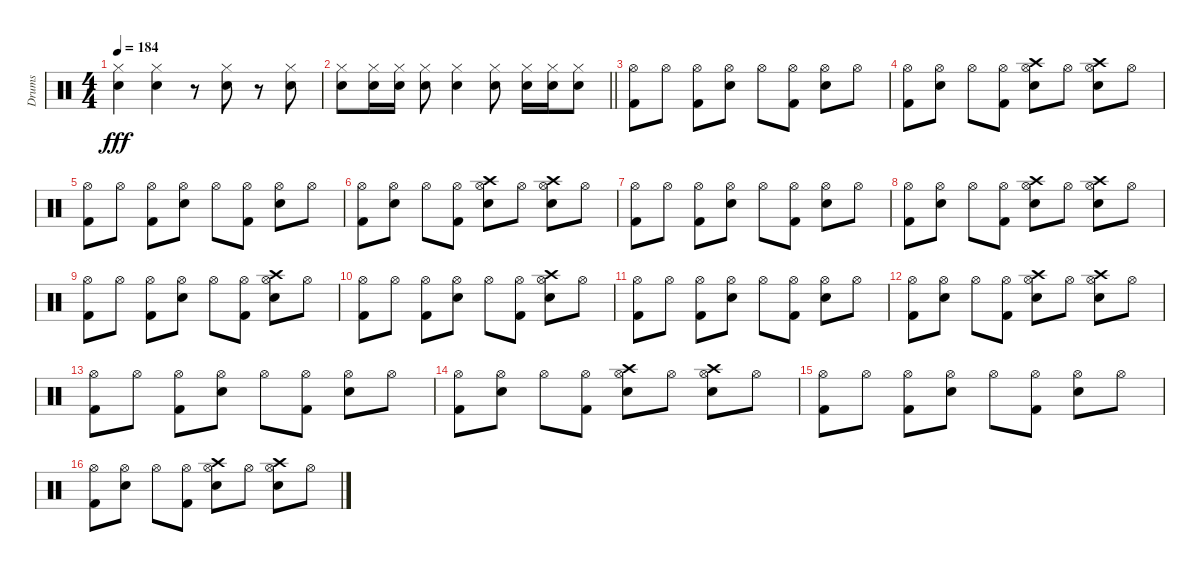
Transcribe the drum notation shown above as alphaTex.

\track ("Drums" "Drums") {instrument percussion}
\staff {score}
\articulation defaults
\ts (4 4)
\tempo 184
\clef neutral
\ks c
("Hi-Hat (closed)" "Snare (hit) 2").4{dy fff} ("Hi-Hat (closed)" "Snare (hit) 2").4 r.8 ("Hi-Hat (closed)" "Snare (hit) 2").8 r.8 ("Hi-Hat (closed)" "Snare (hit) 2").8 |
\barLineRight lightlight
("Hi-Hat (closed)" "Snare (hit) 2").8 ("Hi-Hat (closed)" "Snare (hit) 2").16 ("Hi-Hat (closed)" "Snare (hit) 2").16 ("Hi-Hat (closed)" "Snare (hit) 2").8 ("Hi-Hat (closed)" "Snare (hit) 2").4 ("Hi-Hat (closed)" "Snare (hit) 2").8 ("Hi-Hat (closed)" "Snare (hit) 2").16 ("Hi-Hat (closed)" "Snare (hit) 2").16 ("Hi-Hat (closed)" "Snare (hit) 2").8 |
("Hi-Hat (open)" "Kick (hit) 2").8 "Hi-Hat (open)".8 ("Hi-Hat (open)" "Kick (hit) 2").8 ("Hi-Hat (open)" "Snare (hit) 2").8 "Hi-Hat (open)".8 ("Hi-Hat (open)" "Kick (hit) 2").8 ("Hi-Hat (open)" "Snare (hit) 2").8 "Hi-Hat (open)".8 |
("Hi-Hat (open)" "Kick (hit) 2").8 ("Hi-Hat (open)" "Snare (hit) 2").8 "Hi-Hat (open)".8 ("Hi-Hat (open)" "Kick (hit) 2").8 ("Hi-Hat (open)" "Snare (hit) 2" "Crash high (hit)").8 "Hi-Hat (open)".8 ("Hi-Hat (open)" "Snare (hit) 2" "Crash high (hit)").8 "Hi-Hat (open)".8 |
("Hi-Hat (open)" "Kick (hit) 2").8 "Hi-Hat (open)".8 ("Hi-Hat (open)" "Kick (hit) 2").8 ("Hi-Hat (open)" "Snare (hit) 2").8 "Hi-Hat (open)".8 ("Hi-Hat (open)" "Kick (hit) 2").8 ("Hi-Hat (open)" "Snare (hit) 2").8 "Hi-Hat (open)".8 |
("Hi-Hat (open)" "Kick (hit) 2").8 ("Hi-Hat (open)" "Snare (hit) 2").8 "Hi-Hat (open)".8 ("Hi-Hat (open)" "Kick (hit) 2").8 ("Hi-Hat (open)" "Snare (hit) 2" "Crash high (hit)").8 "Hi-Hat (open)".8 ("Hi-Hat (open)" "Snare (hit) 2" "Crash high (hit)").8 "Hi-Hat (open)".8 |
("Hi-Hat (open)" "Kick (hit) 2").8 "Hi-Hat (open)".8 ("Hi-Hat (open)" "Kick (hit) 2").8 ("Hi-Hat (open)" "Snare (hit) 2").8 "Hi-Hat (open)".8 ("Hi-Hat (open)" "Kick (hit) 2").8 ("Hi-Hat (open)" "Snare (hit) 2").8 "Hi-Hat (open)".8 |
("Hi-Hat (open)" "Kick (hit) 2").8 ("Hi-Hat (open)" "Snare (hit) 2").8 "Hi-Hat (open)".8 ("Hi-Hat (open)" "Kick (hit) 2").8 ("Hi-Hat (open)" "Snare (hit) 2" "Crash high (hit)").8 "Hi-Hat (open)".8 ("Hi-Hat (open)" "Snare (hit) 2" "Crash high (hit)").8 "Hi-Hat (open)".8 |
("Hi-Hat (open)" "Kick (hit) 2").8 "Hi-Hat (open)".8 ("Hi-Hat (open)" "Kick (hit) 2").8 ("Hi-Hat (open)" "Snare (hit) 2").8 "Hi-Hat (open)".8 ("Hi-Hat (open)" "Kick (hit) 2").8 ("Hi-Hat (open)" "Snare (hit) 2" "Crash high (hit)").8 "Hi-Hat (open)".8 |
("Hi-Hat (open)" "Kick (hit) 2").8 "Hi-Hat (open)".8 ("Hi-Hat (open)" "Kick (hit) 2").8 ("Hi-Hat (open)" "Snare (hit) 2").8 "Hi-Hat (open)".8 ("Hi-Hat (open)" "Kick (hit) 2").8 ("Hi-Hat (open)" "Snare (hit) 2" "Crash high (hit)").8 "Hi-Hat (open)".8 |
("Hi-Hat (open)" "Kick (hit) 2").8 "Hi-Hat (open)".8 ("Hi-Hat (open)" "Kick (hit) 2").8 ("Hi-Hat (open)" "Snare (hit) 2").8 "Hi-Hat (open)".8 ("Hi-Hat (open)" "Kick (hit) 2").8 ("Hi-Hat (open)" "Snare (hit) 2").8 "Hi-Hat (open)".8 |
("Hi-Hat (open)" "Kick (hit) 2").8 ("Hi-Hat (open)" "Snare (hit) 2").8 "Hi-Hat (open)".8 ("Hi-Hat (open)" "Kick (hit) 2").8 ("Hi-Hat (open)" "Snare (hit) 2" "Crash high (hit)").8 "Hi-Hat (open)".8 ("Hi-Hat (open)" "Snare (hit) 2" "Crash high (hit)").8 "Hi-Hat (open)".8 |
("Hi-Hat (open)" "Kick (hit) 2").8 "Hi-Hat (open)".8 ("Hi-Hat (open)" "Kick (hit) 2").8 ("Hi-Hat (open)" "Snare (hit) 2").8 "Hi-Hat (open)".8 ("Hi-Hat (open)" "Kick (hit) 2").8 ("Hi-Hat (open)" "Snare (hit) 2").8 "Hi-Hat (open)".8 |
("Hi-Hat (open)" "Kick (hit) 2").8 ("Hi-Hat (open)" "Snare (hit) 2").8 "Hi-Hat (open)".8 ("Hi-Hat (open)" "Kick (hit) 2").8 ("Hi-Hat (open)" "Snare (hit) 2" "Crash high (hit)").8 "Hi-Hat (open)".8 ("Hi-Hat (open)" "Snare (hit) 2" "Crash high (hit)").8 "Hi-Hat (open)".8 |
("Hi-Hat (open)" "Kick (hit) 2").8 "Hi-Hat (open)".8 ("Hi-Hat (open)" "Kick (hit) 2").8 ("Hi-Hat (open)" "Snare (hit) 2").8 "Hi-Hat (open)".8 ("Hi-Hat (open)" "Kick (hit) 2").8 ("Hi-Hat (open)" "Snare (hit) 2").8 "Hi-Hat (open)".8 |
("Hi-Hat (open)" "Kick (hit) 2").8 ("Hi-Hat (open)" "Snare (hit) 2").8 "Hi-Hat (open)".8 ("Hi-Hat (open)" "Kick (hit) 2").8 ("Hi-Hat (open)" "Snare (hit) 2" "Crash high (hit)").8 "Hi-Hat (open)".8 ("Hi-Hat (open)" "Snare (hit) 2" "Crash high (hit)").8 "Hi-Hat (open)".8
